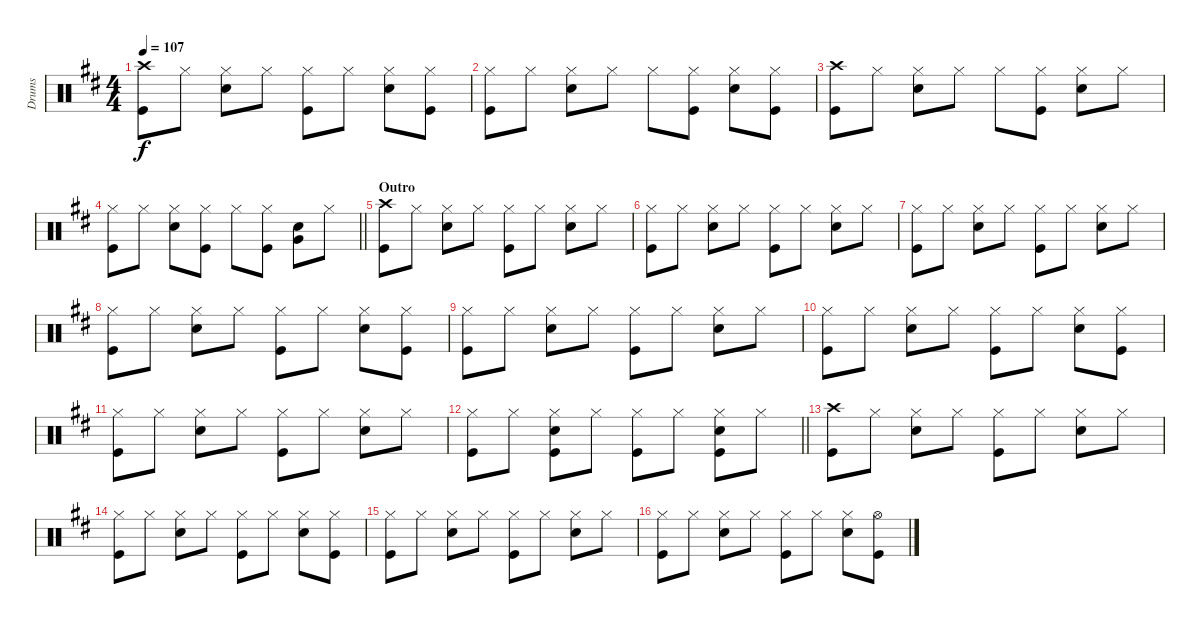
\track ("Drums" "Drums") {instrument percussion}
\staff {score}
\articulation defaults
\ts (4 4)
\tempo 107
\clef neutral
\ks d
("Crash high (hit)" "Kick (hit)").8{dy f} "Hi-Hat (closed)".8 ("Hi-Hat (closed)" "Snare (hit) 2").8 "Hi-Hat (closed)".8 ("Hi-Hat (closed)" "Kick (hit)").8 "Hi-Hat (closed)".8 ("Hi-Hat (closed)" "Snare (hit) 2").8 ("Hi-Hat (closed)" "Kick (hit)").8 |
("Hi-Hat (closed)" "Kick (hit)").8 "Hi-Hat (closed)".8 ("Hi-Hat (closed)" "Snare (hit) 2").8 "Hi-Hat (closed)".8 "Hi-Hat (closed)".8 ("Hi-Hat (closed)" "Kick (hit)").8 ("Hi-Hat (closed)" "Snare (hit) 2").8 ("Hi-Hat (closed)" "Kick (hit)").8 |
("Crash high (hit)" "Kick (hit)").8 "Hi-Hat (closed)".8 ("Hi-Hat (closed)" "Snare (hit) 2").8 "Hi-Hat (closed)".8 "Hi-Hat (closed)".8 ("Hi-Hat (closed)" "Kick (hit)").8 ("Hi-Hat (closed)" "Snare (hit) 2").8 "Hi-Hat (closed)".8 |
\barLineRight lightlight
("Hi-Hat (closed)" "Kick (hit)").8 "Hi-Hat (closed)".8 ("Hi-Hat (closed)" "Snare (hit) 2").8 ("Hi-Hat (closed)" "Kick (hit)").8 "Hi-Hat (closed)".8 ("Hi-Hat (closed)" "Kick (hit)").8 ("Snare (hit) 2" "Very Low Tom (hit)").8 "Hi-Hat (closed)".8 |
\section ("" "Outro")
("Crash high (hit)" "Kick (hit)").8 "Hi-Hat (closed)".8 ("Hi-Hat (closed)" "Snare (hit) 2").8 "Hi-Hat (closed)".8 ("Hi-Hat (closed)" "Kick (hit)").8 "Hi-Hat (closed)".8 ("Hi-Hat (closed)" "Snare (hit) 2").8 "Hi-Hat (closed)".8 |
("Hi-Hat (closed)" "Kick (hit)").8 "Hi-Hat (closed)".8 ("Hi-Hat (closed)" "Snare (hit) 2").8 "Hi-Hat (closed)".8 ("Hi-Hat (closed)" "Kick (hit)").8 "Hi-Hat (closed)".8 ("Hi-Hat (closed)" "Snare (hit) 2").8 "Hi-Hat (closed)".8 |
("Hi-Hat (closed)" "Kick (hit)").8 "Hi-Hat (closed)".8 ("Hi-Hat (closed)" "Snare (hit) 2").8 "Hi-Hat (closed)".8 ("Hi-Hat (closed)" "Kick (hit)").8 "Hi-Hat (closed)".8 ("Hi-Hat (closed)" "Snare (hit) 2").8 "Hi-Hat (closed)".8 |
("Hi-Hat (closed)" "Kick (hit)").8 "Hi-Hat (closed)".8 ("Hi-Hat (closed)" "Snare (hit) 2").8 "Hi-Hat (closed)".8 ("Hi-Hat (closed)" "Kick (hit)").8 "Hi-Hat (closed)".8 ("Hi-Hat (closed)" "Snare (hit) 2").8 ("Hi-Hat (closed)" "Kick (hit)").8 |
("Hi-Hat (closed)" "Kick (hit)").8 "Hi-Hat (closed)".8 ("Hi-Hat (closed)" "Snare (hit) 2").8 "Hi-Hat (closed)".8 ("Hi-Hat (closed)" "Kick (hit)").8 "Hi-Hat (closed)".8 ("Hi-Hat (closed)" "Snare (hit) 2").8 "Hi-Hat (closed)".8 |
("Hi-Hat (closed)" "Kick (hit)").8 "Hi-Hat (closed)".8 ("Hi-Hat (closed)" "Snare (hit) 2").8 "Hi-Hat (closed)".8 ("Hi-Hat (closed)" "Kick (hit)").8 "Hi-Hat (closed)".8 ("Hi-Hat (closed)" "Snare (hit) 2").8 ("Hi-Hat (closed)" "Kick (hit)").8 |
("Hi-Hat (closed)" "Kick (hit)").8 "Hi-Hat (closed)".8 ("Hi-Hat (closed)" "Snare (hit) 2").8 "Hi-Hat (closed)".8 ("Hi-Hat (closed)" "Kick (hit)").8 "Hi-Hat (closed)".8 ("Hi-Hat (closed)" "Snare (hit) 2").8 "Hi-Hat (closed)".8 |
\barLineRight lightlight
("Hi-Hat (closed)" "Kick (hit)").8 "Hi-Hat (closed)".8 ("Hi-Hat (closed)" "Snare (hit) 2" "Kick (hit)").8 "Hi-Hat (closed)".8 ("Hi-Hat (closed)" "Kick (hit)").8 "Hi-Hat (closed)".8 ("Hi-Hat (closed)" "Snare (hit) 2" "Kick (hit)").8 "Hi-Hat (closed)".8 |
("Crash high (hit)" "Kick (hit)").8 "Hi-Hat (closed)".8 ("Hi-Hat (closed)" "Snare (hit) 2").8 "Hi-Hat (closed)".8 ("Hi-Hat (closed)" "Kick (hit)").8 "Hi-Hat (closed)".8 ("Hi-Hat (closed)" "Snare (hit) 2").8 "Hi-Hat (closed)".8 |
("Hi-Hat (closed)" "Kick (hit)").8 "Hi-Hat (closed)".8 ("Hi-Hat (closed)" "Snare (hit) 2").8 "Hi-Hat (closed)".8 ("Hi-Hat (closed)" "Kick (hit)").8 "Hi-Hat (closed)".8 ("Hi-Hat (closed)" "Snare (hit) 2").8 ("Hi-Hat (closed)" "Kick (hit)").8 |
("Hi-Hat (closed)" "Kick (hit)").8 "Hi-Hat (closed)".8 ("Hi-Hat (closed)" "Snare (hit) 2").8 "Hi-Hat (closed)".8 ("Hi-Hat (closed)" "Kick (hit)").8 "Hi-Hat (closed)".8 ("Hi-Hat (closed)" "Snare (hit) 2").8 "Hi-Hat (closed)".8 |
("Hi-Hat (closed)" "Kick (hit)").8 "Hi-Hat (closed)".8 ("Hi-Hat (closed)" "Snare (hit) 2").8 "Hi-Hat (closed)".8 ("Hi-Hat (closed)" "Kick (hit)").8 "Hi-Hat (closed)".8 ("Hi-Hat (closed)" "Snare (hit) 2").8 ("Hi-Hat (open)" "Kick (hit)").8
